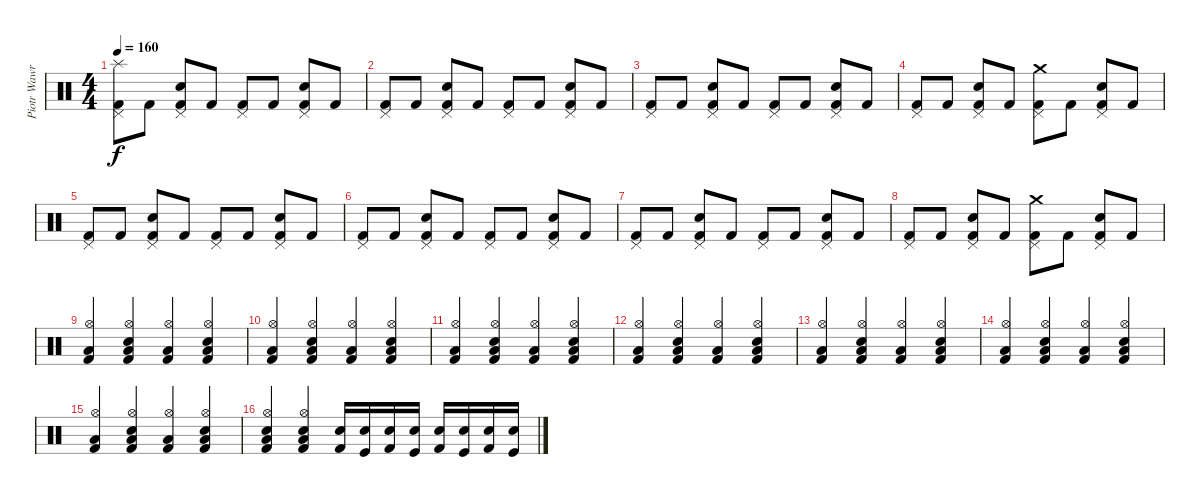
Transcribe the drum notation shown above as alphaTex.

\track ("Piotr Wawrzeniuk" "Piotr Wawr") {instrument percussion}
\staff {score}
\articulation defaults
\ts (4 4)
\tempo 160
\clef neutral
\ks c
("Splash (hit)" "Pedal Hi-Hat (hit)" "Kick (hit) 2").8{dy f} "Kick (hit) 2".8 ("Snare (hit) 2" "Pedal Hi-Hat (hit)" "Kick (hit) 2").8 "Kick (hit) 2".8 ("Pedal Hi-Hat (hit)" "Kick (hit) 2").8 "Kick (hit) 2".8 ("Snare (hit) 2" "Pedal Hi-Hat (hit)" "Kick (hit) 2").8 "Kick (hit) 2".8 |
("Pedal Hi-Hat (hit)" "Kick (hit) 2").8 "Kick (hit) 2".8 ("Snare (hit) 2" "Pedal Hi-Hat (hit)" "Kick (hit) 2").8 "Kick (hit) 2".8 ("Pedal Hi-Hat (hit)" "Kick (hit) 2").8 "Kick (hit) 2".8 ("Snare (hit) 2" "Pedal Hi-Hat (hit)" "Kick (hit) 2").8 "Kick (hit) 2".8 |
("Pedal Hi-Hat (hit)" "Kick (hit) 2").8 "Kick (hit) 2".8 ("Snare (hit) 2" "Pedal Hi-Hat (hit)" "Kick (hit) 2").8 "Kick (hit) 2".8 ("Pedal Hi-Hat (hit)" "Kick (hit) 2").8 "Kick (hit) 2".8 ("Snare (hit) 2" "Pedal Hi-Hat (hit)" "Kick (hit) 2").8 "Kick (hit) 2".8 |
("Pedal Hi-Hat (hit)" "Kick (hit) 2").8 "Kick (hit) 2".8 ("Snare (hit) 2" "Pedal Hi-Hat (hit)" "Kick (hit) 2").8 "Kick (hit) 2".8 ("Crash medium (hit)" "Pedal Hi-Hat (hit)" "Kick (hit) 2").8 "Kick (hit) 2".8 ("Snare (hit) 2" "Pedal Hi-Hat (hit)" "Kick (hit) 2").8 "Kick (hit) 2".8 |
("Pedal Hi-Hat (hit)" "Kick (hit) 2").8 "Kick (hit) 2".8 ("Snare (hit) 2" "Pedal Hi-Hat (hit)" "Kick (hit) 2").8 "Kick (hit) 2".8 ("Pedal Hi-Hat (hit)" "Kick (hit) 2").8 "Kick (hit) 2".8 ("Snare (hit) 2" "Pedal Hi-Hat (hit)" "Kick (hit) 2").8 "Kick (hit) 2".8 |
("Pedal Hi-Hat (hit)" "Kick (hit) 2").8 "Kick (hit) 2".8 ("Snare (hit) 2" "Pedal Hi-Hat (hit)" "Kick (hit) 2").8 "Kick (hit) 2".8 ("Pedal Hi-Hat (hit)" "Kick (hit) 2").8 "Kick (hit) 2".8 ("Snare (hit) 2" "Pedal Hi-Hat (hit)" "Kick (hit) 2").8 "Kick (hit) 2".8 |
("Pedal Hi-Hat (hit)" "Kick (hit) 2").8 "Kick (hit) 2".8 ("Snare (hit) 2" "Pedal Hi-Hat (hit)" "Kick (hit) 2").8 "Kick (hit) 2".8 ("Pedal Hi-Hat (hit)" "Kick (hit) 2").8 "Kick (hit) 2".8 ("Snare (hit) 2" "Pedal Hi-Hat (hit)" "Kick (hit) 2").8 "Kick (hit) 2".8 |
("Pedal Hi-Hat (hit)" "Kick (hit) 2").8 "Kick (hit) 2".8 ("Snare (hit) 2" "Pedal Hi-Hat (hit)" "Kick (hit) 2").8 "Kick (hit) 2".8 ("Crash medium (hit)" "Pedal Hi-Hat (hit)" "Kick (hit) 2").8 "Kick (hit) 2".8 ("Snare (hit) 2" "Pedal Hi-Hat (hit)" "Kick (hit) 2").8 "Kick (hit) 2".8 |
("Hi-Hat (open)" "Low Floor Tom (hit)" "Kick (hit) 2").4 ("Snare (hit) 2" "Hi-Hat (open)" "Low Floor Tom (hit)" "Kick (hit) 2").4 ("Hi-Hat (open)" "Low Floor Tom (hit)" "Kick (hit) 2").4 ("Snare (hit) 2" "Hi-Hat (open)" "Low Floor Tom (hit)" "Kick (hit) 2").4 |
("Hi-Hat (open)" "Low Floor Tom (hit)" "Kick (hit) 2").4 ("Snare (hit) 2" "Hi-Hat (open)" "Low Floor Tom (hit)" "Kick (hit) 2").4 ("Hi-Hat (open)" "Low Floor Tom (hit)" "Kick (hit) 2").4 ("Snare (hit) 2" "Hi-Hat (open)" "Low Floor Tom (hit)" "Kick (hit) 2").4 |
("Hi-Hat (open)" "Low Floor Tom (hit)" "Kick (hit) 2").4 ("Snare (hit) 2" "Hi-Hat (open)" "Low Floor Tom (hit)" "Kick (hit) 2").4 ("Hi-Hat (open)" "Low Floor Tom (hit)" "Kick (hit) 2").4 ("Snare (hit) 2" "Hi-Hat (open)" "Low Floor Tom (hit)" "Kick (hit) 2").4 |
("Hi-Hat (open)" "Low Floor Tom (hit)" "Kick (hit) 2").4 ("Snare (hit) 2" "Hi-Hat (open)" "Low Floor Tom (hit)" "Kick (hit) 2").4 ("Hi-Hat (open)" "Low Floor Tom (hit)" "Kick (hit) 2").4 ("Snare (hit) 2" "Hi-Hat (open)" "Low Floor Tom (hit)" "Kick (hit) 2").4 |
("Hi-Hat (open)" "Low Floor Tom (hit)" "Kick (hit) 2").4 ("Snare (hit) 2" "Hi-Hat (open)" "Low Floor Tom (hit)" "Kick (hit) 2").4 ("Hi-Hat (open)" "Low Floor Tom (hit)" "Kick (hit) 2").4 ("Snare (hit) 2" "Hi-Hat (open)" "Low Floor Tom (hit)" "Kick (hit) 2").4 |
("Hi-Hat (open)" "Low Floor Tom (hit)" "Kick (hit) 2").4 ("Snare (hit) 2" "Hi-Hat (open)" "Low Floor Tom (hit)" "Kick (hit) 2").4 ("Hi-Hat (open)" "Low Floor Tom (hit)" "Kick (hit) 2").4 ("Snare (hit) 2" "Hi-Hat (open)" "Low Floor Tom (hit)" "Kick (hit) 2").4 |
("Hi-Hat (open)" "Low Floor Tom (hit)" "Kick (hit) 2").4 ("Snare (hit) 2" "Hi-Hat (open)" "Low Floor Tom (hit)" "Kick (hit) 2").4 ("Hi-Hat (open)" "Low Floor Tom (hit)" "Kick (hit) 2").4 ("Snare (hit) 2" "Hi-Hat (open)" "Low Floor Tom (hit)" "Kick (hit) 2").4 |
("Snare (hit) 2" "Hi-Hat (open)" "Low Floor Tom (hit)" "Kick (hit) 2").4 ("Snare (hit) 2" "Hi-Hat (open)" "Low Floor Tom (hit)" "Kick (hit) 2").4 ("Snare (hit) 2" "Kick (hit) 2").16 ("Snare (hit) 2" "Kick (hit)").16 ("Snare (hit) 2" "Kick (hit) 2").16 ("Snare (hit) 2" "Kick (hit)").16 ("Snare (hit) 2" "Kick (hit) 2").16 ("Snare (hit) 2" "Kick (hit)").16 ("Snare (hit) 2" "Kick (hit) 2").16 ("Snare (hit) 2" "Kick (hit)").16
